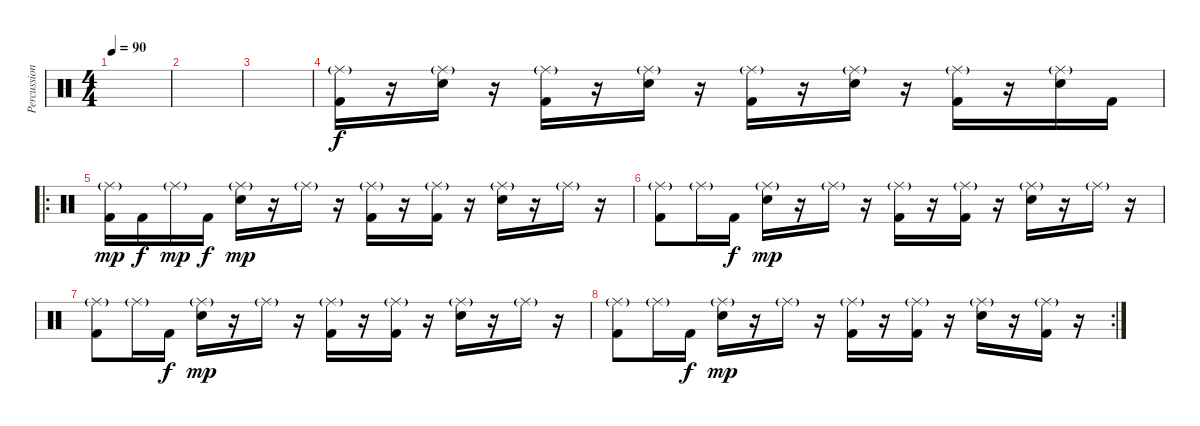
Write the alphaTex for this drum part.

\track ("Percussion" "Percussion") {instrument percussion}
\staff {score}
\articulation defaults
\ts (4 4)
\tempo 90
\clef neutral
\ks c
|
|
|
("Ride (middle)"{g} "Kick (hit) 2").16 r.16 ("Ride (middle)"{g} "Electric Snare (hit)").16 r.16 ("Ride (middle)"{g} "Kick (hit) 2").16 r.16 ("Ride (middle)"{g} "Electric Snare (hit)").16 r.16 ("Ride (middle)"{g} "Kick (hit) 2").16 r.16 ("Ride (middle)"{g} "Electric Snare (hit)").16 r.16 ("Ride (middle)"{g} "Kick (hit) 2").16 r.16 ("Ride (middle)"{g} "Electric Snare (hit)").16 "Kick (hit) 2".16{dy f} |
\ro
("Ride (middle)"{g} "Kick (hit) 2").16{dy mp} "Kick (hit) 2".16{dy f} "Ride (middle)"{g}.16{dy mp} "Kick (hit) 2".16{dy f} ("Ride (middle)"{g} "Electric Snare (hit)").16{dy mp} r.16 "Ride (middle)"{g}.16 r.16 ("Ride (middle)"{g} "Kick (hit) 2").16 r.16 ("Ride (middle)"{g} "Kick (hit) 2").16 r.16 ("Ride (middle)"{g} "Electric Snare (hit)").16 r.16 "Ride (middle)"{g}.16 r.16 |
("Ride (middle)"{g} "Kick (hit) 2").8 "Ride (middle)"{g}.16 "Kick (hit) 2".16{dy f} ("Ride (middle)"{g} "Electric Snare (hit)").16{dy mp} r.16 "Ride (middle)"{g}.16 r.16 ("Ride (middle)"{g} "Kick (hit) 2").16 r.16 ("Ride (middle)"{g} "Kick (hit) 2").16 r.16 ("Ride (middle)"{g} "Electric Snare (hit)").16 r.16 "Ride (middle)"{g}.16 r.16 |
("Ride (middle)"{g} "Kick (hit) 2").8 "Ride (middle)"{g}.16 "Kick (hit) 2".16{dy f} ("Ride (middle)"{g} "Electric Snare (hit)").16{dy mp} r.16 "Ride (middle)"{g}.16 r.16 ("Ride (middle)"{g} "Kick (hit) 2").16 r.16 ("Ride (middle)"{g} "Kick (hit) 2").16 r.16 ("Ride (middle)"{g} "Electric Snare (hit)").16 r.16 "Ride (middle)"{g}.16 r.16 |
\rc 2
("Ride (middle)"{g} "Kick (hit) 2").8 "Ride (middle)"{g}.16 "Kick (hit) 2".16{dy f} ("Ride (middle)"{g} "Electric Snare (hit)").16{dy mp} r.16 "Ride (middle)"{g}.16 r.16 ("Ride (middle)"{g} "Kick (hit) 2").16 r.16 ("Ride (middle)"{g} "Kick (hit) 2").16 r.16 ("Ride (middle)"{g} "Electric Snare (hit)").16 r.16 ("Ride (middle)"{g} "Kick (hit) 2").16 r.16
